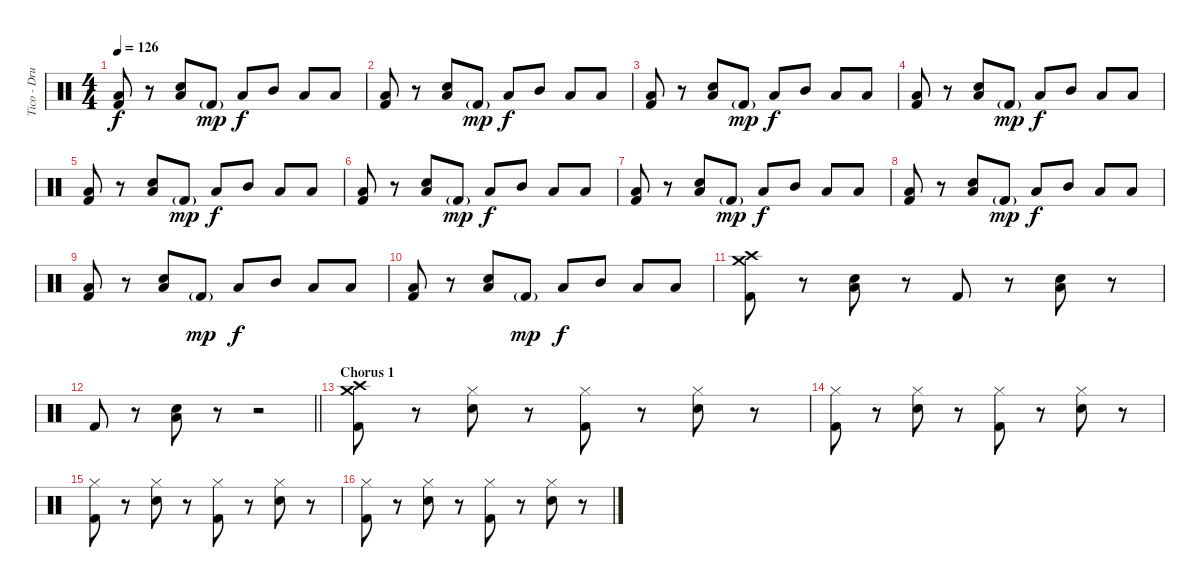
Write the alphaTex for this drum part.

\track ("Tico - Drums" "Tico - Dru") {instrument percussion}
\staff {score}
\articulation defaults
\ts (4 4)
\tempo 126
\clef neutral
\ks c
("Low Floor Tom (hit)" "Kick (hit) 2").8{dy f} r.8 ("Snare (hit) 2" "Low Floor Tom (hit)").8 "Kick (hit) 2"{g}.8{dy mp} "Low Floor Tom (hit)".8{dy f} "Mid Tom (hit)".8 "Low Floor Tom (hit)".8 "Low Tom (hit)".8 |
("Low Floor Tom (hit)" "Kick (hit) 2").8 r.8 ("Snare (hit) 2" "Low Floor Tom (hit)").8 "Kick (hit) 2"{g}.8{dy mp} "Low Floor Tom (hit)".8{dy f} "Mid Tom (hit)".8 "Low Floor Tom (hit)".8 "Low Tom (hit)".8 |
("Low Floor Tom (hit)" "Kick (hit) 2").8 r.8 ("Snare (hit) 2" "Low Floor Tom (hit)").8 "Kick (hit) 2"{g}.8{dy mp} "Low Floor Tom (hit)".8{dy f} "Mid Tom (hit)".8 "Low Floor Tom (hit)".8 "Low Tom (hit)".8 |
("Low Floor Tom (hit)" "Kick (hit) 2").8 r.8 ("Snare (hit) 2" "Low Floor Tom (hit)").8 "Kick (hit) 2"{g}.8{dy mp} "Low Floor Tom (hit)".8{dy f} "Mid Tom (hit)".8 "Low Floor Tom (hit)".8 "Low Tom (hit)".8 |
("Low Floor Tom (hit)" "Kick (hit) 2").8 r.8 ("Snare (hit) 2" "Low Floor Tom (hit)").8 "Kick (hit) 2"{g}.8{dy mp} "Low Floor Tom (hit)".8{dy f} "Mid Tom (hit)".8 "Low Floor Tom (hit)".8 "Low Tom (hit)".8 |
("Low Floor Tom (hit)" "Kick (hit) 2").8 r.8 ("Snare (hit) 2" "Low Floor Tom (hit)").8 "Kick (hit) 2"{g}.8{dy mp} "Low Floor Tom (hit)".8{dy f} "Mid Tom (hit)".8 "Low Floor Tom (hit)".8 "Low Tom (hit)".8 |
("Low Floor Tom (hit)" "Kick (hit) 2").8 r.8 ("Snare (hit) 2" "Low Floor Tom (hit)").8 "Kick (hit) 2"{g}.8{dy mp} "Low Floor Tom (hit)".8{dy f} "Mid Tom (hit)".8 "Low Floor Tom (hit)".8 "Low Tom (hit)".8 |
("Low Floor Tom (hit)" "Kick (hit) 2").8 r.8 ("Snare (hit) 2" "Low Floor Tom (hit)").8 "Kick (hit) 2"{g}.8{dy mp} "Low Floor Tom (hit)".8{dy f} "Mid Tom (hit)".8 "Low Floor Tom (hit)".8 "Low Tom (hit)".8 |
("Low Floor Tom (hit)" "Kick (hit) 2").8 r.8 ("Snare (hit) 2" "Low Floor Tom (hit)").8 "Kick (hit) 2"{g}.8{dy mp} "Low Floor Tom (hit)".8{dy f} "Mid Tom (hit)".8 "Low Floor Tom (hit)".8 "Low Tom (hit)".8 |
("Low Floor Tom (hit)" "Kick (hit) 2").8 r.8 ("Snare (hit) 2" "Low Floor Tom (hit)").8 "Kick (hit) 2"{g}.8{dy mp} "Low Floor Tom (hit)".8{dy f} "Mid Tom (hit)".8 "Low Floor Tom (hit)".8 "Low Tom (hit)".8 |
("Crash medium (hit)" "Kick (hit) 2" "Crash high (hit)").8 r.8 ("Low Floor Tom (hit)" "Snare (hit) 2").8 r.8 "Kick (hit) 2".8 r.8 ("Low Floor Tom (hit)" "Snare (hit) 2").8 r.8 |
\barLineRight lightlight "Kick (hit) 2".8
r.8 ("Low Floor Tom (hit)" "Snare (hit) 2").8 r.8 r.2 |
\section ("" "Chorus 1")
("Crash medium (hit)" "Kick (hit) 2" "Crash high (hit)").8 r.8 ("Hi-Hat (closed)" "Snare (hit) 2").8 r.8 ("Hi-Hat (closed)" "Kick (hit) 2").8 r.8 ("Hi-Hat (closed)" "Snare (hit) 2").8 r.8 |
("Hi-Hat (closed)" "Kick (hit) 2").8 r.8 ("Hi-Hat (closed)" "Snare (hit) 2").8 r.8 ("Hi-Hat (closed)" "Kick (hit) 2").8 r.8 ("Hi-Hat (closed)" "Snare (hit) 2").8 r.8 |
("Hi-Hat (closed)" "Kick (hit) 2").8 r.8 ("Hi-Hat (closed)" "Snare (hit) 2").8 r.8 ("Hi-Hat (closed)" "Kick (hit) 2").8 r.8 ("Hi-Hat (closed)" "Snare (hit) 2").8 r.8 |
("Hi-Hat (closed)" "Kick (hit) 2").8 r.8 ("Hi-Hat (closed)" "Snare (hit) 2").8 r.8 ("Hi-Hat (closed)" "Kick (hit) 2").8 r.8 ("Hi-Hat (closed)" "Snare (hit) 2").8 r.8
